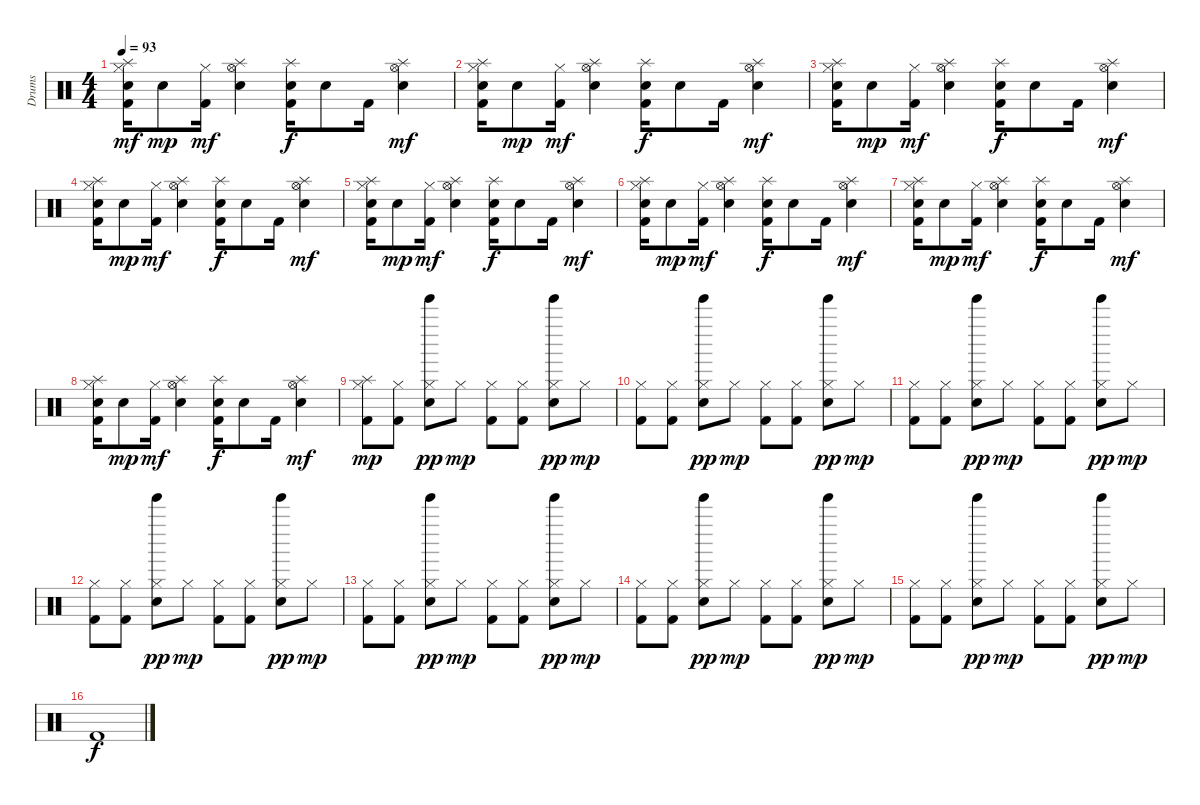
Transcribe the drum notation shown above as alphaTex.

\track ("Drums" "Drums") {instrument percussion}
\staff {score}
\articulation defaults
\ts (4 4)
\tempo 93
\clef neutral
\ks c
("Kick (hit) 2" "Snare (hit) 2" "Hi-Hat (closed)" "Splash (hit)").16{dy mf} "Snare (hit) 2".8{dy mp} ("Kick (hit) 2" "Hi-Hat (closed)").16{dy mf} ("Snare (hit) 2" "Hi-Hat (open)" "Splash (hit)").4 ("Kick (hit) 2" "Snare (hit) 2" "Splash (hit)").16{dy f} "Snare (hit) 2".8 "Kick (hit) 2".16 ("Snare (hit) 2" "Hi-Hat (open)" "Splash (hit)").4{dy mf} |
("Kick (hit) 2" "Snare (hit) 2" "Hi-Hat (closed)" "Splash (hit)").16 "Snare (hit) 2".8{dy mp} ("Kick (hit) 2" "Hi-Hat (closed)").16{dy mf} ("Snare (hit) 2" "Hi-Hat (open)" "Splash (hit)").4 ("Kick (hit) 2" "Snare (hit) 2" "Splash (hit)").16{dy f} "Snare (hit) 2".8 "Kick (hit) 2".16 ("Snare (hit) 2" "Hi-Hat (open)" "Splash (hit)").4{dy mf} |
("Kick (hit) 2" "Snare (hit) 2" "Hi-Hat (closed)" "Splash (hit)").16 "Snare (hit) 2".8{dy mp} ("Kick (hit) 2" "Hi-Hat (closed)").16{dy mf} ("Snare (hit) 2" "Hi-Hat (open)" "Splash (hit)").4 ("Kick (hit) 2" "Snare (hit) 2" "Splash (hit)").16{dy f} "Snare (hit) 2".8 "Kick (hit) 2".16 ("Snare (hit) 2" "Hi-Hat (open)" "Splash (hit)").4{dy mf} |
("Kick (hit) 2" "Snare (hit) 2" "Hi-Hat (closed)" "Splash (hit)").16 "Snare (hit) 2".8{dy mp} ("Kick (hit) 2" "Hi-Hat (closed)").16{dy mf} ("Snare (hit) 2" "Hi-Hat (open)" "Splash (hit)").4 ("Kick (hit) 2" "Snare (hit) 2" "Splash (hit)").16{dy f} "Snare (hit) 2".8 "Kick (hit) 2".16 ("Snare (hit) 2" "Hi-Hat (open)" "Splash (hit)").4{dy mf} |
("Kick (hit) 2" "Snare (hit) 2" "Hi-Hat (closed)" "Splash (hit)").16 "Snare (hit) 2".8{dy mp} ("Kick (hit) 2" "Hi-Hat (closed)").16{dy mf} ("Snare (hit) 2" "Hi-Hat (open)" "Splash (hit)").4 ("Kick (hit) 2" "Snare (hit) 2" "Splash (hit)").16{dy f} "Snare (hit) 2".8 "Kick (hit) 2".16 ("Snare (hit) 2" "Hi-Hat (open)" "Splash (hit)").4{dy mf} |
("Kick (hit) 2" "Snare (hit) 2" "Hi-Hat (closed)" "Splash (hit)").16 "Snare (hit) 2".8{dy mp} ("Kick (hit) 2" "Hi-Hat (closed)").16{dy mf} ("Snare (hit) 2" "Hi-Hat (open)" "Splash (hit)").4 ("Kick (hit) 2" "Snare (hit) 2" "Splash (hit)").16{dy f} "Snare (hit) 2".8 "Kick (hit) 2".16 ("Snare (hit) 2" "Hi-Hat (open)" "Splash (hit)").4{dy mf} |
("Kick (hit) 2" "Snare (hit) 2" "Hi-Hat (closed)" "Splash (hit)").16 "Snare (hit) 2".8{dy mp} ("Kick (hit) 2" "Hi-Hat (closed)").16{dy mf} ("Snare (hit) 2" "Hi-Hat (open)" "Splash (hit)").4 ("Kick (hit) 2" "Snare (hit) 2" "Splash (hit)").16{dy f} "Snare (hit) 2".8 "Kick (hit) 2".16 ("Snare (hit) 2" "Hi-Hat (open)" "Splash (hit)").4{dy mf} |
("Kick (hit) 2" "Snare (hit) 2" "Hi-Hat (closed)" "Splash (hit)").16 "Snare (hit) 2".8{dy mp} ("Kick (hit) 2" "Hi-Hat (closed)").16{dy mf} ("Snare (hit) 2" "Hi-Hat (open)" "Splash (hit)").4 ("Kick (hit) 2" "Snare (hit) 2" "Splash (hit)").16{dy f} "Snare (hit) 2".8 "Kick (hit) 2".16 ("Snare (hit) 2" "Hi-Hat (open)" "Splash (hit)").4{dy mf} |
("Kick (hit) 2" "Hi-Hat (closed)" "Splash (hit)").8{dy mp} ("Kick (hit) 2" "Hi-Hat (closed)").8 ("Tinkle Bell (hit)" "Hi-Hat (closed)" "Snare (hit) 2").8{dy pp} "Hi-Hat (closed)".8{dy mp} ("Kick (hit) 2" "Hi-Hat (closed)").8 ("Kick (hit) 2" "Hi-Hat (closed)").8 ("Tinkle Bell (hit)" "Hi-Hat (closed)" "Snare (hit) 2").8{dy pp} "Hi-Hat (closed)".8{dy mp} |
("Kick (hit) 2" "Hi-Hat (closed)").8 ("Kick (hit) 2" "Hi-Hat (closed)").8 ("Tinkle Bell (hit)" "Hi-Hat (closed)" "Snare (hit) 2").8{dy pp} "Hi-Hat (closed)".8{dy mp} ("Kick (hit) 2" "Hi-Hat (closed)").8 ("Kick (hit) 2" "Hi-Hat (closed)").8 ("Tinkle Bell (hit)" "Hi-Hat (closed)" "Snare (hit) 2").8{dy pp} "Hi-Hat (closed)".8{dy mp} |
("Kick (hit) 2" "Hi-Hat (closed)").8 ("Kick (hit) 2" "Hi-Hat (closed)").8 ("Tinkle Bell (hit)" "Hi-Hat (closed)" "Snare (hit) 2").8{dy pp} "Hi-Hat (closed)".8{dy mp} ("Kick (hit) 2" "Hi-Hat (closed)").8 ("Kick (hit) 2" "Hi-Hat (closed)").8 ("Tinkle Bell (hit)" "Hi-Hat (closed)" "Snare (hit) 2").8{dy pp} "Hi-Hat (closed)".8{dy mp} |
("Kick (hit) 2" "Hi-Hat (closed)").8 ("Kick (hit) 2" "Hi-Hat (closed)").8 ("Tinkle Bell (hit)" "Hi-Hat (closed)" "Snare (hit) 2").8{dy pp} "Hi-Hat (closed)".8{dy mp} ("Kick (hit) 2" "Hi-Hat (closed)").8 ("Kick (hit) 2" "Hi-Hat (closed)").8 ("Tinkle Bell (hit)" "Hi-Hat (closed)" "Snare (hit) 2").8{dy pp} "Hi-Hat (closed)".8{dy mp} |
("Kick (hit) 2" "Hi-Hat (closed)").8 ("Kick (hit) 2" "Hi-Hat (closed)").8 ("Tinkle Bell (hit)" "Hi-Hat (closed)" "Snare (hit) 2").8{dy pp} "Hi-Hat (closed)".8{dy mp} ("Kick (hit) 2" "Hi-Hat (closed)").8 ("Kick (hit) 2" "Hi-Hat (closed)").8 ("Tinkle Bell (hit)" "Hi-Hat (closed)" "Snare (hit) 2").8{dy pp} "Hi-Hat (closed)".8{dy mp} |
("Kick (hit) 2" "Hi-Hat (closed)").8 ("Kick (hit) 2" "Hi-Hat (closed)").8 ("Tinkle Bell (hit)" "Hi-Hat (closed)" "Snare (hit) 2").8{dy pp} "Hi-Hat (closed)".8{dy mp} ("Kick (hit) 2" "Hi-Hat (closed)").8 ("Kick (hit) 2" "Hi-Hat (closed)").8 ("Tinkle Bell (hit)" "Hi-Hat (closed)" "Snare (hit) 2").8{dy pp} "Hi-Hat (closed)".8{dy mp} |
("Kick (hit) 2" "Hi-Hat (closed)").8 ("Kick (hit) 2" "Hi-Hat (closed)").8 ("Tinkle Bell (hit)" "Hi-Hat (closed)" "Snare (hit) 2").8{dy pp} "Hi-Hat (closed)".8{dy mp} ("Kick (hit) 2" "Hi-Hat (closed)").8 ("Kick (hit) 2" "Hi-Hat (closed)").8 ("Tinkle Bell (hit)" "Hi-Hat (closed)" "Snare (hit) 2").8{dy pp} "Hi-Hat (closed)".8{dy mp} |
"Kick (hit) 2".1{dy f}
